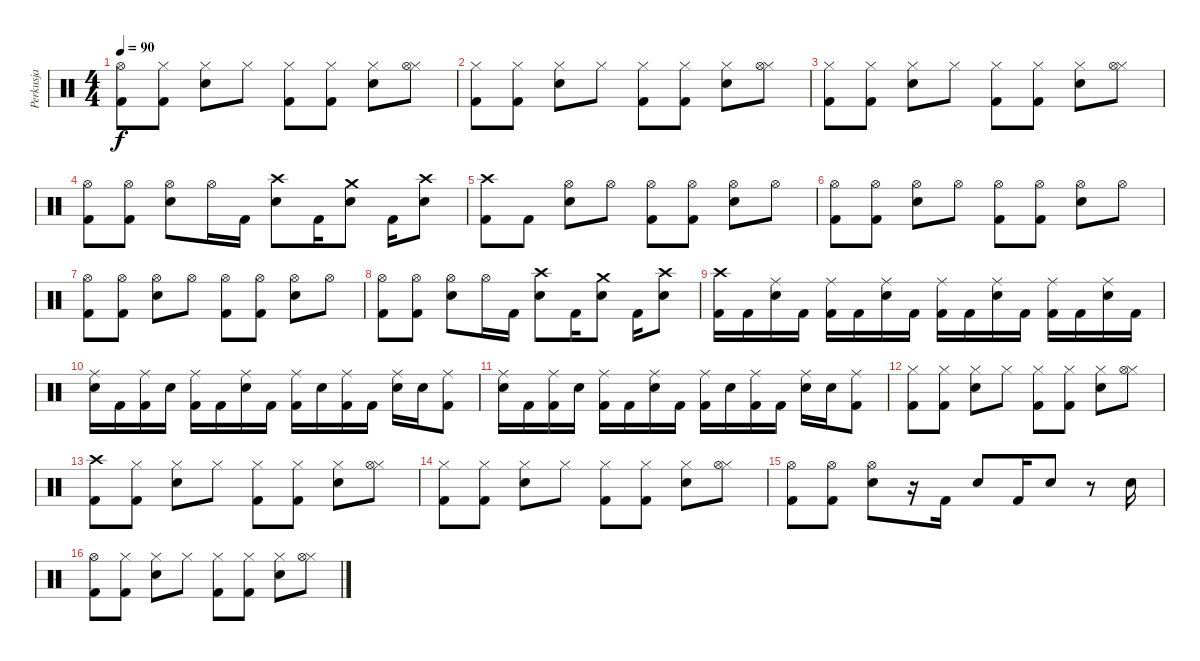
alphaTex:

\track ("Perkusja" "Perkusja") {instrument percussion}
\staff {score}
\articulation defaults
\ts (4 4)
\tempo 90
\clef neutral
\ks c
("Hi-Hat (open)" "Kick (hit) 2").8{dy f} ("Hi-Hat (closed)" "Kick (hit) 2").8 ("Hi-Hat (closed)" "Electric Snare (hit)").8 "Hi-Hat (closed)".8 ("Hi-Hat (closed)" "Kick (hit) 2").8 ("Hi-Hat (closed)" "Kick (hit) 2").8 ("Hi-Hat (closed)" "Electric Snare (hit)").8 ("Hi-Hat (closed)" "Hi-Hat (open)").8 |
("Hi-Hat (closed)" "Kick (hit) 2").8 ("Hi-Hat (closed)" "Kick (hit) 2").8 ("Hi-Hat (closed)" "Electric Snare (hit)").8 "Hi-Hat (closed)".8 ("Hi-Hat (closed)" "Kick (hit) 2").8 ("Hi-Hat (closed)" "Kick (hit) 2").8 ("Hi-Hat (closed)" "Electric Snare (hit)").8 ("Hi-Hat (closed)" "Hi-Hat (open)").8 |
("Hi-Hat (closed)" "Kick (hit) 2").8 ("Hi-Hat (closed)" "Kick (hit) 2").8 ("Hi-Hat (closed)" "Electric Snare (hit)").8 "Hi-Hat (closed)".8 ("Hi-Hat (closed)" "Kick (hit) 2").8 ("Hi-Hat (closed)" "Kick (hit) 2").8 ("Hi-Hat (closed)" "Electric Snare (hit)").8 ("Hi-Hat (closed)" "Hi-Hat (open)").8 |
("Hi-Hat (open)" "Kick (hit) 2").8 ("Hi-Hat (open)" "Kick (hit) 2").8 ("Hi-Hat (open)" "Electric Snare (hit)").8 "Hi-Hat (open)".16 "Kick (hit) 2".16 ("Crash high (hit)" "Electric Snare (hit)").8 "Kick (hit) 2".16 ("Crash medium (hit)" "Electric Snare (hit)").8 "Kick (hit) 2".16 ("Crash high (hit)" "Electric Snare (hit)").8 |
("Crash high (hit)" "Kick (hit) 2").8 "Kick (hit) 2".8 ("Hi-Hat (open)" "Electric Snare (hit)").8 "Hi-Hat (open)".8 ("Hi-Hat (open)" "Kick (hit) 2").8 ("Hi-Hat (open)" "Kick (hit) 2").8 ("Hi-Hat (open)" "Electric Snare (hit)").8 "Hi-Hat (open)".8 |
("Hi-Hat (open)" "Kick (hit) 2").8 ("Hi-Hat (open)" "Kick (hit) 2").8 ("Hi-Hat (open)" "Electric Snare (hit)").8 "Hi-Hat (open)".8 ("Hi-Hat (open)" "Kick (hit) 2").8 ("Hi-Hat (open)" "Kick (hit) 2").8 ("Hi-Hat (open)" "Electric Snare (hit)").8 "Hi-Hat (open)".8 |
("Hi-Hat (open)" "Kick (hit) 2").8 ("Hi-Hat (open)" "Kick (hit) 2").8 ("Hi-Hat (open)" "Electric Snare (hit)").8 "Hi-Hat (open)".8 ("Hi-Hat (open)" "Kick (hit) 2").8 ("Hi-Hat (open)" "Kick (hit) 2").8 ("Hi-Hat (open)" "Electric Snare (hit)").8 "Hi-Hat (open)".8 |
("Hi-Hat (open)" "Kick (hit) 2").8 ("Hi-Hat (open)" "Kick (hit) 2").8 ("Hi-Hat (open)" "Electric Snare (hit)").8 "Hi-Hat (open)".16 "Kick (hit) 2".16 ("Crash high (hit)" "Electric Snare (hit)").8 "Kick (hit) 2".16 ("Crash medium (hit)" "Electric Snare (hit)").8 "Kick (hit) 2".16 ("Crash high (hit)" "Electric Snare (hit)").8 |
("Crash high (hit)" "Kick (hit) 2").16 "Kick (hit) 2".16 ("Ride (middle)" "Electric Snare (hit)").16 "Kick (hit) 2".16 ("Ride (middle)" "Kick (hit) 2").16 "Kick (hit) 2".16 ("Ride (middle)" "Electric Snare (hit)").16 "Kick (hit) 2".16 ("Ride (middle)" "Kick (hit) 2").16 "Kick (hit) 2".16 ("Ride (middle)" "Electric Snare (hit)").16 "Kick (hit) 2".16 ("Ride (middle)" "Kick (hit) 2").16 "Kick (hit) 2".16 ("Ride (middle)" "Electric Snare (hit)").16 "Kick (hit) 2".16 |
("Ride (middle)" "Electric Snare (hit)").16 "Kick (hit) 2".16 ("Ride (middle)" "Kick (hit) 2").16 "Electric Snare (hit)".16 ("Ride (middle)" "Kick (hit) 2").16 "Kick (hit) 2".16 ("Ride (middle)" "Electric Snare (hit)").16 "Kick (hit) 2".16 ("Ride (middle)" "Kick (hit) 2").16 "Electric Snare (hit)".16 ("Ride (middle)" "Kick (hit) 2").16 "Kick (hit) 2".16 ("Ride (middle)" "Electric Snare (hit)").16 "Electric Snare (hit)".16 ("Ride (middle)" "Kick (hit) 2").8 |
("Ride (middle)" "Electric Snare (hit)").16 "Kick (hit) 2".16 ("Ride (middle)" "Kick (hit) 2").16 "Electric Snare (hit)".16 ("Ride (middle)" "Kick (hit) 2").16 "Kick (hit) 2".16 ("Ride (middle)" "Electric Snare (hit)").16 "Kick (hit) 2".16 ("Ride (middle)" "Kick (hit) 2").16 "Electric Snare (hit)".16 ("Ride (middle)" "Kick (hit) 2").16 "Kick (hit) 2".16 ("Ride (middle)" "Electric Snare (hit)").16 "Electric Snare (hit)".16 ("Ride (middle)" "Kick (hit) 2").8 |
("Hi-Hat (closed)" "Kick (hit) 2").8 ("Hi-Hat (closed)" "Kick (hit) 2").8 ("Hi-Hat (closed)" "Electric Snare (hit)").8 "Hi-Hat (closed)".8 ("Hi-Hat (closed)" "Kick (hit) 2").8 ("Hi-Hat (closed)" "Kick (hit) 2").8 ("Hi-Hat (closed)" "Electric Snare (hit)").8 ("Hi-Hat (closed)" "Hi-Hat (open)").8 |
("Crash high (hit)" "Kick (hit) 2").8 ("Hi-Hat (closed)" "Kick (hit) 2").8 ("Hi-Hat (closed)" "Electric Snare (hit)").8 "Hi-Hat (closed)".8 ("Hi-Hat (closed)" "Kick (hit) 2").8 ("Hi-Hat (closed)" "Kick (hit) 2").8 ("Hi-Hat (closed)" "Electric Snare (hit)").8 ("Hi-Hat (closed)" "Hi-Hat (open)").8 |
("Hi-Hat (closed)" "Kick (hit) 2").8 ("Hi-Hat (closed)" "Kick (hit) 2").8 ("Hi-Hat (closed)" "Electric Snare (hit)").8 "Hi-Hat (closed)".8 ("Hi-Hat (closed)" "Kick (hit) 2").8 ("Hi-Hat (closed)" "Kick (hit) 2").8 ("Hi-Hat (closed)" "Electric Snare (hit)").8 ("Hi-Hat (closed)" "Hi-Hat (open)").8 |
("Hi-Hat (open)" "Kick (hit) 2").8 ("Hi-Hat (open)" "Kick (hit) 2").8 ("Hi-Hat (open)" "Electric Snare (hit)").8 r.16 "Kick (hit) 2".16 "Electric Snare (hit)".8 "Kick (hit) 2".16 "Electric Snare (hit)".8 r.8 "Electric Snare (hit)".16 |
("Hi-Hat (open)" "Kick (hit) 2").8 ("Hi-Hat (closed)" "Kick (hit) 2").8 ("Hi-Hat (closed)" "Electric Snare (hit)").8 "Hi-Hat (closed)".8 ("Hi-Hat (closed)" "Kick (hit) 2").8 ("Hi-Hat (closed)" "Kick (hit) 2").8 ("Hi-Hat (closed)" "Electric Snare (hit)").8 ("Hi-Hat (closed)" "Hi-Hat (open)").8
